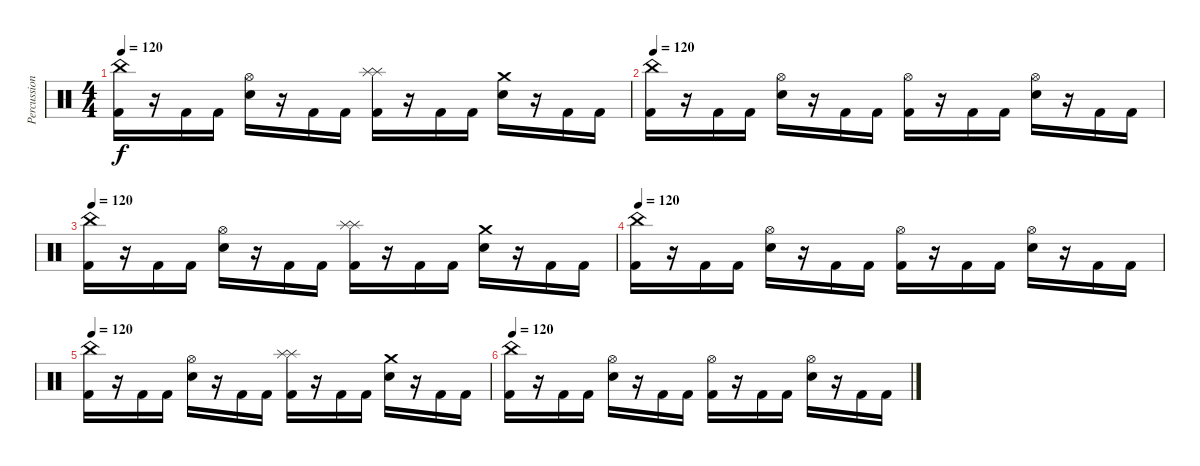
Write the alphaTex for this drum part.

\track ("Percussion" "Percussion") {instrument percussion}
\staff {score}
\articulation defaults
\ts (4 4)
\tempo 120
\clef neutral
\ks c
("China (hit)" "Kick (hit) 2").16{dy f volume 8} r.16 "Kick (hit) 2".16 "Kick (hit) 2".16 ("Hi-Hat (open)" "Snare (hit) 2").16 r.16 "Kick (hit) 2".16 "Kick (hit) 2".16 ("Splash (hit)" "Splash (hit)" "Kick (hit) 2").16 r.16 "Kick (hit) 2".16 "Kick (hit) 2".16 ("Crash medium (hit)" "Snare (hit) 2").16 r.16 "Kick (hit) 2".16 "Kick (hit) 2".16 |
\tempo 120
("China (hit)" "Kick (hit) 2").16 r.16 "Kick (hit) 2".16 "Kick (hit) 2".16 ("Hi-Hat (open)" "Snare (hit) 2").16 r.16 "Kick (hit) 2".16 "Kick (hit) 2".16 ("Hi-Hat (open)" "Kick (hit) 2").16 r.16 "Kick (hit) 2".16 "Kick (hit) 2".16 ("Hi-Hat (open)" "Snare (hit) 2").16 r.16 "Kick (hit) 2".16 "Kick (hit) 2".16 |
\tempo 120
("China (hit)" "Kick (hit) 2").16{volume 6} r.16 "Kick (hit) 2".16 "Kick (hit) 2".16 ("Hi-Hat (open)" "Snare (hit) 2").16 r.16 "Kick (hit) 2".16 "Kick (hit) 2".16 ("Splash (hit)" "Splash (hit)" "Kick (hit) 2").16 r.16 "Kick (hit) 2".16 "Kick (hit) 2".16 ("Crash medium (hit)" "Snare (hit) 2").16 r.16 "Kick (hit) 2".16 "Kick (hit) 2".16 |
\tempo 120
("China (hit)" "Kick (hit) 2").16 r.16 "Kick (hit) 2".16 "Kick (hit) 2".16 ("Hi-Hat (open)" "Snare (hit) 2").16 r.16 "Kick (hit) 2".16 "Kick (hit) 2".16 ("Hi-Hat (open)" "Kick (hit) 2").16 r.16 "Kick (hit) 2".16 "Kick (hit) 2".16 ("Hi-Hat (open)" "Snare (hit) 2").16 r.16 "Kick (hit) 2".16 "Kick (hit) 2".16 |
\tempo 120
("China (hit)" "Kick (hit) 2").16{volume 0} r.16 "Kick (hit) 2".16 "Kick (hit) 2".16 ("Hi-Hat (open)" "Snare (hit) 2").16 r.16 "Kick (hit) 2".16 "Kick (hit) 2".16 ("Splash (hit)" "Splash (hit)" "Kick (hit) 2").16 r.16 "Kick (hit) 2".16 "Kick (hit) 2".16 ("Crash medium (hit)" "Snare (hit) 2").16 r.16 "Kick (hit) 2".16 "Kick (hit) 2".16 |
\tempo 120
("China (hit)" "Kick (hit) 2").16 r.16 "Kick (hit) 2".16 "Kick (hit) 2".16 ("Hi-Hat (open)" "Snare (hit) 2").16 r.16 "Kick (hit) 2".16 "Kick (hit) 2".16 ("Hi-Hat (open)" "Kick (hit) 2").16 r.16 "Kick (hit) 2".16 "Kick (hit) 2".16 ("Hi-Hat (open)" "Snare (hit) 2").16 r.16 "Kick (hit) 2".16 "Kick (hit) 2".16
